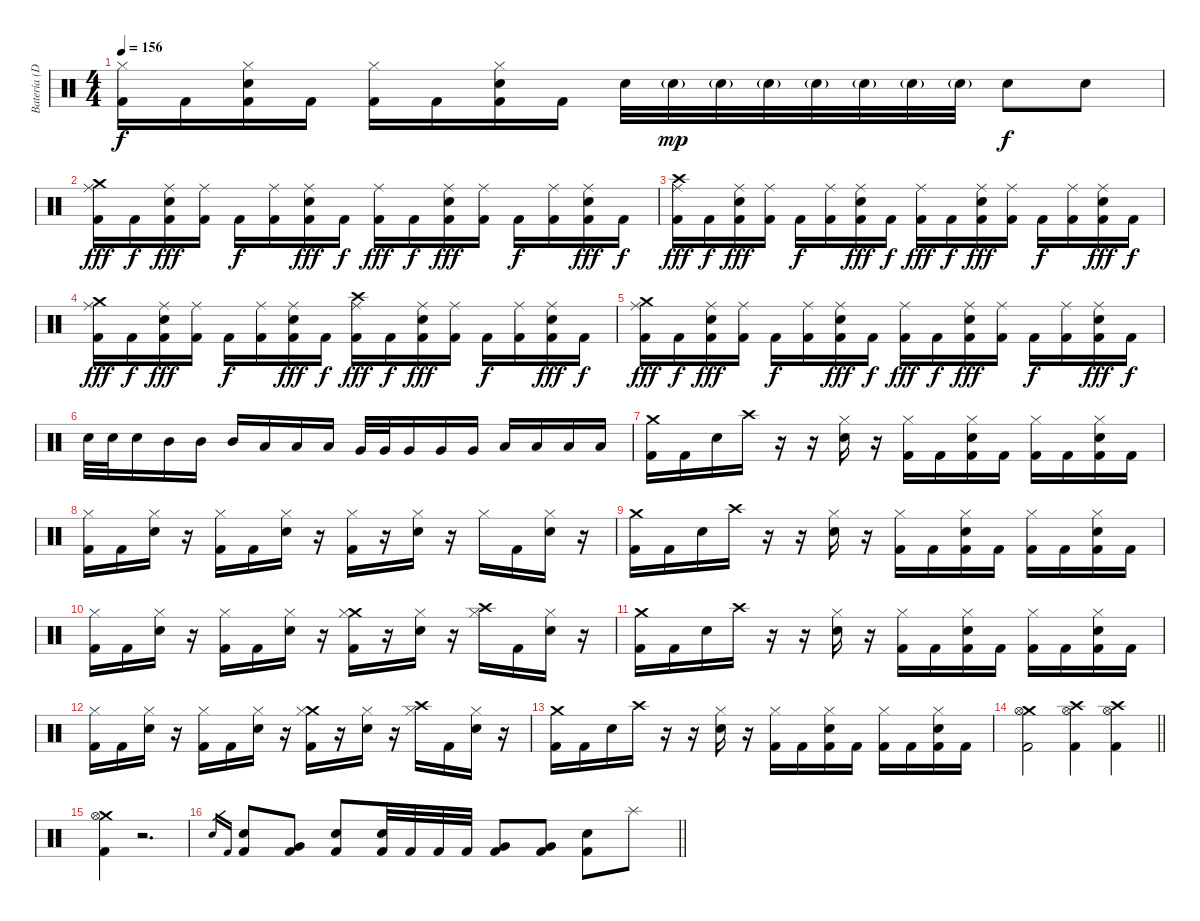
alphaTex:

\track ("Batería (Dani)" "Batería (D") {instrument percussion}
\staff {score}
\articulation defaults
\ts (4 4)
\tempo 156
\clef neutral
\ks c
("Hi-Hat (closed)" "Kick (hit) 2").16{dy f} "Kick (hit) 2".16 ("Hi-Hat (closed)" "Electric Snare (hit)" "Kick (hit) 2").16 "Kick (hit) 2".16 ("Hi-Hat (closed)" "Kick (hit) 2").16 "Kick (hit) 2".16 ("Hi-Hat (closed)" "Electric Snare (hit)" "Kick (hit) 2").16 "Kick (hit) 2".16 "Electric Snare (hit)".32 "Electric Snare (hit)"{g}.32{dy mp} "Electric Snare (hit)"{g}.32 "Electric Snare (hit)"{g}.32 "Electric Snare (hit)"{g}.32 "Electric Snare (hit)"{g}.32 "Electric Snare (hit)"{g}.32 "Electric Snare (hit)"{g}.32 "Electric Snare (hit)".8{dy f} "Electric Snare (hit)".8 |
("Crash medium (hit)" "Ride (middle)" "Kick (hit) 2").16{dy fff} "Kick (hit) 2".16{dy f} ("Ride (middle)" "Electric Snare (hit)" "Kick (hit) 2").16{dy fff} ("Ride (middle)" "Kick (hit) 2").16 "Kick (hit) 2".16{dy f} ("Ride (middle)" "Kick (hit) 2").16 ("Ride (middle)" "Electric Snare (hit)" "Kick (hit) 2").16{dy fff} "Kick (hit) 2".16{dy f} ("Ride (middle)" "Kick (hit) 2").16{dy fff} "Kick (hit) 2".16{dy f} ("Ride (middle)" "Electric Snare (hit)" "Kick (hit) 2").16{dy fff} ("Ride (middle)" "Kick (hit) 2").16 "Kick (hit) 2".16{dy f} ("Ride (middle)" "Kick (hit) 2").16 ("Ride (middle)" "Electric Snare (hit)" "Kick (hit) 2").16{dy fff} "Kick (hit) 2".16{dy f} |
("Crash high (hit)" "Ride (middle)" "Kick (hit) 2").16{dy fff} "Kick (hit) 2".16{dy f} ("Ride (middle)" "Electric Snare (hit)" "Kick (hit) 2").16{dy fff} ("Ride (middle)" "Kick (hit) 2").16 "Kick (hit) 2".16{dy f} ("Ride (middle)" "Kick (hit) 2").16 ("Ride (middle)" "Electric Snare (hit)" "Kick (hit) 2").16{dy fff} "Kick (hit) 2".16{dy f} ("Ride (middle)" "Kick (hit) 2").16{dy fff} "Kick (hit) 2".16{dy f} ("Ride (middle)" "Electric Snare (hit)" "Kick (hit) 2").16{dy fff} ("Ride (middle)" "Kick (hit) 2").16 "Kick (hit) 2".16{dy f} ("Ride (middle)" "Kick (hit) 2").16 ("Ride (middle)" "Electric Snare (hit)" "Kick (hit) 2").16{dy fff} "Kick (hit) 2".16{dy f} |
("Crash medium (hit)" "Ride (middle)" "Kick (hit) 2").16{dy fff} "Kick (hit) 2".16{dy f} ("Ride (middle)" "Electric Snare (hit)" "Kick (hit) 2").16{dy fff} ("Ride (middle)" "Kick (hit) 2").16 "Kick (hit) 2".16{dy f} ("Ride (middle)" "Kick (hit) 2").16 ("Ride (middle)" "Electric Snare (hit)" "Kick (hit) 2").16{dy fff} "Kick (hit) 2".16{dy f} ("Crash high (hit)" "Ride (middle)" "Kick (hit) 2").16{dy fff} "Kick (hit) 2".16{dy f} ("Ride (middle)" "Electric Snare (hit)" "Kick (hit) 2").16{dy fff} ("Ride (middle)" "Kick (hit) 2").16 "Kick (hit) 2".16{dy f} ("Ride (middle)" "Kick (hit) 2").16 ("Ride (middle)" "Electric Snare (hit)" "Kick (hit) 2").16{dy fff} "Kick (hit) 2".16{dy f} |
("Crash medium (hit)" "Ride (middle)" "Kick (hit) 2").16{dy fff} "Kick (hit) 2".16{dy f} ("Ride (middle)" "Electric Snare (hit)" "Kick (hit) 2").16{dy fff} ("Ride (middle)" "Kick (hit) 2").16 "Kick (hit) 2".16{dy f} ("Ride (middle)" "Kick (hit) 2").16 ("Ride (middle)" "Electric Snare (hit)" "Kick (hit) 2").16{dy fff} "Kick (hit) 2".16{dy f} ("Ride (middle)" "Kick (hit) 2").16{dy fff} "Kick (hit) 2".16{dy f} ("Ride (middle)" "Electric Snare (hit)" "Kick (hit) 2").16{dy fff} ("Ride (middle)" "Kick (hit) 2").16 "Kick (hit) 2".16{dy f} ("Ride (middle)" "Kick (hit) 2").16 ("Ride (middle)" "Electric Snare (hit)" "Kick (hit) 2").16{dy fff} "Kick (hit) 2".16{dy f} |
"Electric Snare (hit)".32 "Electric Snare (hit)".32 "Electric Snare (hit)".16 "Mid Tom (hit)".16 "Mid Tom (hit)".16 "Mid Tom (hit)".16 "Low Tom (hit)".16 "Low Tom (hit)".16 "Low Tom (hit)".16 "Very Low Tom (hit)".32 "Very Low Tom (hit)".32 "Very Low Tom (hit)".16 "Very Low Tom (hit)".16 "Very Low Tom (hit)".16 "Low Floor Tom (hit)".16 "Low Floor Tom (hit)".16 "Low Floor Tom (hit)".16 "Low Floor Tom (hit)".16 |
("Crash medium (hit)" "Kick (hit) 2").16 "Kick (hit) 2".16 "Electric Snare (hit)".16 "Crash high (hit)".16 r.16 r.16 ("Hi-Hat (closed)" "Electric Snare (hit)").16 r.16 ("Hi-Hat (closed)" "Kick (hit) 2").16 "Kick (hit) 2".16 ("Hi-Hat (closed)" "Electric Snare (hit)" "Kick (hit) 2").16 "Kick (hit) 2".16 ("Hi-Hat (closed)" "Kick (hit) 2").16 "Kick (hit) 2".16 ("Hi-Hat (closed)" "Electric Snare (hit)" "Kick (hit) 2").16 "Kick (hit) 2".16 |
("Hi-Hat (closed)" "Kick (hit) 2").16 "Kick (hit) 2".16 ("Hi-Hat (closed)" "Electric Snare (hit)").16 r.16 ("Hi-Hat (closed)" "Kick (hit) 2").16 "Kick (hit) 2".16 ("Hi-Hat (closed)" "Electric Snare (hit)").16 r.16 ("Hi-Hat (closed)" "Kick (hit) 2").16 r.16 ("Hi-Hat (closed)" "Electric Snare (hit)").16 r.16 "Hi-Hat (closed)".16 "Kick (hit) 2".16 ("Hi-Hat (closed)" "Electric Snare (hit)").16 r.16 |
("Crash medium (hit)" "Kick (hit) 2").16 "Kick (hit) 2".16 "Electric Snare (hit)".16 "Crash high (hit)".16 r.16 r.16 ("Hi-Hat (closed)" "Electric Snare (hit)").16 r.16 ("Hi-Hat (closed)" "Kick (hit) 2").16 "Kick (hit) 2".16 ("Hi-Hat (closed)" "Electric Snare (hit)" "Kick (hit) 2").16 "Kick (hit) 2".16 ("Hi-Hat (closed)" "Kick (hit) 2").16 "Kick (hit) 2".16 ("Hi-Hat (closed)" "Electric Snare (hit)" "Kick (hit) 2").16 "Kick (hit) 2".16 |
("Hi-Hat (closed)" "Kick (hit) 2").16 "Kick (hit) 2".16 ("Hi-Hat (closed)" "Electric Snare (hit)").16 r.16 ("Hi-Hat (closed)" "Kick (hit) 2").16 "Kick (hit) 2".16 ("Hi-Hat (closed)" "Electric Snare (hit)").16 r.16 ("Crash medium (hit)" "Hi-Hat (closed)" "Kick (hit) 2").16 r.16 ("Hi-Hat (closed)" "Electric Snare (hit)").16 r.16 ("Crash high (hit)" "Hi-Hat (closed)").16 "Kick (hit) 2".16 ("Hi-Hat (closed)" "Electric Snare (hit)").16 r.16 |
("Crash medium (hit)" "Kick (hit) 2").16 "Kick (hit) 2".16 "Electric Snare (hit)".16 "Crash high (hit)".16 r.16 r.16 ("Hi-Hat (closed)" "Electric Snare (hit)").16 r.16 ("Hi-Hat (closed)" "Kick (hit) 2").16 "Kick (hit) 2".16 ("Hi-Hat (closed)" "Electric Snare (hit)" "Kick (hit) 2").16 "Kick (hit) 2".16 ("Hi-Hat (closed)" "Kick (hit) 2").16 "Kick (hit) 2".16 ("Hi-Hat (closed)" "Electric Snare (hit)" "Kick (hit) 2").16 "Kick (hit) 2".16 |
("Hi-Hat (closed)" "Kick (hit) 2").16 "Kick (hit) 2".16 ("Hi-Hat (closed)" "Electric Snare (hit)").16 r.16 ("Hi-Hat (closed)" "Kick (hit) 2").16 "Kick (hit) 2".16 ("Hi-Hat (closed)" "Electric Snare (hit)").16 r.16 ("Crash medium (hit)" "Hi-Hat (closed)" "Kick (hit) 2").16 r.16 ("Hi-Hat (closed)" "Electric Snare (hit)").16 r.16 ("Crash high (hit)" "Hi-Hat (closed)").16 "Kick (hit) 2".16 ("Hi-Hat (closed)" "Electric Snare (hit)").16 r.16 |
("Crash medium (hit)" "Kick (hit) 2").16 "Kick (hit) 2".16 "Electric Snare (hit)".16 "Crash high (hit)".16 r.16 r.16 ("Hi-Hat (closed)" "Electric Snare (hit)").16 r.16 ("Hi-Hat (closed)" "Kick (hit) 2").16 "Kick (hit) 2".16 ("Hi-Hat (closed)" "Electric Snare (hit)" "Kick (hit) 2").16 "Kick (hit) 2".16 ("Hi-Hat (closed)" "Kick (hit) 2").16 "Kick (hit) 2".16 ("Hi-Hat (closed)" "Electric Snare (hit)" "Kick (hit) 2").16 "Kick (hit) 2".16 |
\barLineRight lightlight
("Crash medium (hit)" "Hi-Hat (open)" "Kick (hit) 2").2 ("Crash high (hit)" "Hi-Hat (open)" "Kick (hit) 2").4 ("Crash high (hit)" "Hi-Hat (open)" "Kick (hit) 2").4 |
("Crash medium (hit)" "Hi-Hat (open)" "Kick (hit) 2").4 r.2{d} |
\barLineRight lightlight "Electric Snare (hit)".16{gr} "Kick (hit) 2".16{gr}
("Electric Snare (hit)" "Kick (hit) 2").8 ("Very Low Tom (hit)" "Kick (hit) 2").8 ("Electric Snare (hit)" "Kick (hit) 2").8 ("Electric Snare (hit)" "Kick (hit) 2").32 "Kick (hit) 2".32 "Kick (hit) 2".32 "Kick (hit) 2".32 ("Very Low Tom (hit)" "Kick (hit) 2").8 ("Very Low Tom (hit)" "Kick (hit) 2").8 ("Electric Snare (hit)" "Kick (hit) 2").8 "Splash (hit)".8
